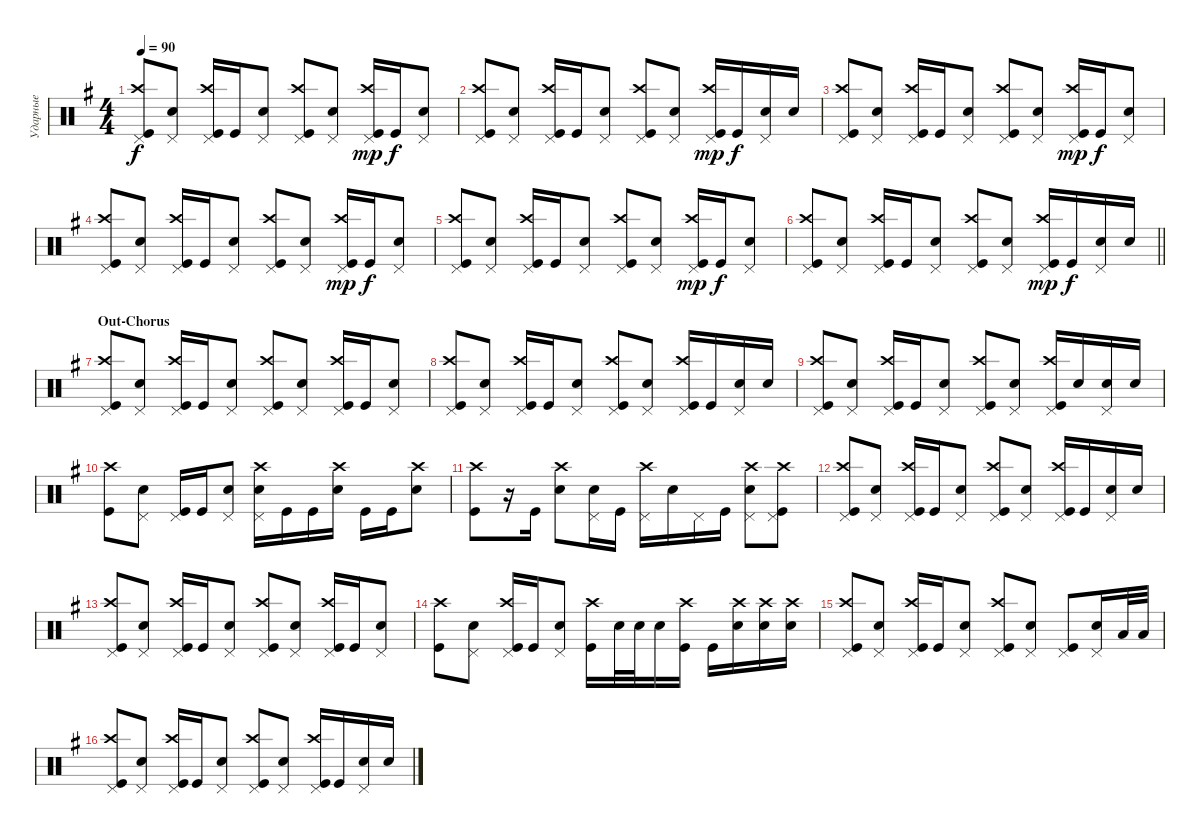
\track ("Ударные" "Ударные") {instrument percussion}
\staff {score}
\articulation defaults
\ts (4 4)
\tempo 90
\clef neutral
\ks eminor
("Kick (hit)" "Crash high (hit)" "Pedal Hi-Hat (hit)").8{dy f} ("Snare (hit) 2" "Pedal Hi-Hat (hit)").8 ("Kick (hit)" "Crash high (hit)" "Pedal Hi-Hat (hit)").16 "Kick (hit)".16 ("Snare (hit) 2" "Pedal Hi-Hat (hit)").8 ("Kick (hit)" "Crash high (hit)" "Pedal Hi-Hat (hit)").8 ("Snare (hit) 2" "Pedal Hi-Hat (hit)").8 ("Kick (hit)" "Crash high (hit)" "Pedal Hi-Hat (hit)").16{dy mp} "Kick (hit)".16{dy f} ("Snare (hit) 2" "Pedal Hi-Hat (hit)").8 |
("Kick (hit)" "Crash high (hit)" "Pedal Hi-Hat (hit)").8 ("Snare (hit) 2" "Pedal Hi-Hat (hit)").8 ("Kick (hit)" "Crash high (hit)" "Pedal Hi-Hat (hit)").16 "Kick (hit)".16 ("Snare (hit) 2" "Pedal Hi-Hat (hit)").8 ("Kick (hit)" "Crash high (hit)" "Pedal Hi-Hat (hit)").8 ("Snare (hit) 2" "Pedal Hi-Hat (hit)").8 ("Kick (hit)" "Crash high (hit)" "Pedal Hi-Hat (hit)").16{dy mp} "Kick (hit)".16{dy f} ("Snare (hit) 2" "Pedal Hi-Hat (hit)").16 "Snare (hit) 2".16 |
("Kick (hit)" "Crash high (hit)" "Pedal Hi-Hat (hit)").8 ("Snare (hit) 2" "Pedal Hi-Hat (hit)").8 ("Kick (hit)" "Crash high (hit)" "Pedal Hi-Hat (hit)").16 "Kick (hit)".16 ("Snare (hit) 2" "Pedal Hi-Hat (hit)").8 ("Kick (hit)" "Crash high (hit)" "Pedal Hi-Hat (hit)").8 ("Snare (hit) 2" "Pedal Hi-Hat (hit)").8 ("Kick (hit)" "Crash high (hit)" "Pedal Hi-Hat (hit)").16{dy mp} "Kick (hit)".16{dy f} ("Snare (hit) 2" "Pedal Hi-Hat (hit)").8 |
("Kick (hit)" "Crash high (hit)" "Pedal Hi-Hat (hit)").8 ("Snare (hit) 2" "Pedal Hi-Hat (hit)").8 ("Kick (hit)" "Crash high (hit)" "Pedal Hi-Hat (hit)").16 "Kick (hit)".16 ("Snare (hit) 2" "Pedal Hi-Hat (hit)").8 ("Kick (hit)" "Crash high (hit)" "Pedal Hi-Hat (hit)").8 ("Snare (hit) 2" "Pedal Hi-Hat (hit)").8 ("Kick (hit)" "Crash high (hit)" "Pedal Hi-Hat (hit)").16{dy mp} "Kick (hit)".16{dy f} ("Snare (hit) 2" "Pedal Hi-Hat (hit)").8 |
("Kick (hit)" "Crash high (hit)" "Pedal Hi-Hat (hit)").8 ("Snare (hit) 2" "Pedal Hi-Hat (hit)").8 ("Kick (hit)" "Crash high (hit)" "Pedal Hi-Hat (hit)").16 "Kick (hit)".16 ("Snare (hit) 2" "Pedal Hi-Hat (hit)").8 ("Kick (hit)" "Crash high (hit)" "Pedal Hi-Hat (hit)").8 ("Snare (hit) 2" "Pedal Hi-Hat (hit)").8 ("Kick (hit)" "Crash high (hit)" "Pedal Hi-Hat (hit)").16{dy mp} "Kick (hit)".16{dy f} ("Snare (hit) 2" "Pedal Hi-Hat (hit)").8 |
\barLineRight lightlight
("Kick (hit)" "Crash high (hit)" "Pedal Hi-Hat (hit)").8 ("Snare (hit) 2" "Pedal Hi-Hat (hit)").8 ("Kick (hit)" "Crash high (hit)" "Pedal Hi-Hat (hit)").16 "Kick (hit)".16 ("Snare (hit) 2" "Pedal Hi-Hat (hit)").8 ("Kick (hit)" "Crash high (hit)" "Pedal Hi-Hat (hit)").8 ("Snare (hit) 2" "Pedal Hi-Hat (hit)").8 ("Kick (hit)" "Crash high (hit)" "Pedal Hi-Hat (hit)").16{dy mp} "Kick (hit)".16{dy f} ("Snare (hit) 2" "Pedal Hi-Hat (hit)").16 "Snare (hit) 2".16 |
\section ("" "Out-Chorus")
("Kick (hit)" "Crash high (hit)" "Pedal Hi-Hat (hit)").8 ("Snare (hit) 2" "Pedal Hi-Hat (hit)").8 ("Kick (hit)" "Crash high (hit)" "Pedal Hi-Hat (hit)").16 "Kick (hit)".16 ("Snare (hit) 2" "Pedal Hi-Hat (hit)").8 ("Kick (hit)" "Crash high (hit)" "Pedal Hi-Hat (hit)").8 ("Snare (hit) 2" "Pedal Hi-Hat (hit)").8 ("Kick (hit)" "Crash high (hit)" "Pedal Hi-Hat (hit)").16 "Kick (hit)".16 ("Snare (hit) 2" "Pedal Hi-Hat (hit)").8 |
("Kick (hit)" "Crash high (hit)" "Pedal Hi-Hat (hit)").8 ("Snare (hit) 2" "Pedal Hi-Hat (hit)").8 ("Kick (hit)" "Crash high (hit)" "Pedal Hi-Hat (hit)").16 "Kick (hit)".16 ("Snare (hit) 2" "Pedal Hi-Hat (hit)").8 ("Kick (hit)" "Crash high (hit)" "Pedal Hi-Hat (hit)").8 ("Snare (hit) 2" "Pedal Hi-Hat (hit)").8 ("Kick (hit)" "Crash high (hit)" "Pedal Hi-Hat (hit)").16 "Kick (hit)".16 ("Snare (hit) 2" "Pedal Hi-Hat (hit)").16 "Snare (hit) 2".16 |
("Kick (hit)" "Crash high (hit)" "Pedal Hi-Hat (hit)").8 ("Snare (hit) 2" "Pedal Hi-Hat (hit)").8 ("Kick (hit)" "Crash high (hit)" "Pedal Hi-Hat (hit)").16 "Kick (hit)".16 ("Snare (hit) 2" "Pedal Hi-Hat (hit)").8 ("Kick (hit)" "Crash high (hit)" "Pedal Hi-Hat (hit)").8 ("Snare (hit) 2" "Pedal Hi-Hat (hit)").8 ("Kick (hit)" "Crash high (hit)" "Pedal Hi-Hat (hit)").16 "Snare (hit) 2".16 ("Snare (hit) 2" "Pedal Hi-Hat (hit)").16 "Snare (hit) 2".16 |
("Kick (hit)" "Crash high (hit)").8 ("Snare (hit) 2" "Pedal Hi-Hat (hit)").8 ("Kick (hit)" "Pedal Hi-Hat (hit)").16 "Kick (hit)".16 ("Snare (hit) 2" "Pedal Hi-Hat (hit)").8 ("Crash high (hit)" "Snare (hit) 2" "Pedal Hi-Hat (hit)").16 "Kick (hit)".16 "Kick (hit)".16 ("Snare (hit) 2" "Crash high (hit)").16 "Kick (hit)".16 "Kick (hit)".16 ("Snare (hit) 2" "Crash high (hit)").8 |
("Kick (hit)" "Crash high (hit)").8 r.16 "Kick (hit)".16 ("Snare (hit) 2" "Crash high (hit)").8 ("Snare (hit) 2" "Pedal Hi-Hat (hit)").16 "Kick (hit)".16 ("Pedal Hi-Hat (hit)" "Crash high (hit)").16 "Snare (hit) 2".16 "Pedal Hi-Hat (hit)".16 "Kick (hit)".16 ("Snare (hit) 2" "Crash high (hit)" "Pedal Hi-Hat (hit)").8 ("Kick (hit)" "Crash high (hit)" "Pedal Hi-Hat (hit)").8 |
("Kick (hit)" "Crash high (hit)" "Pedal Hi-Hat (hit)").8 ("Snare (hit) 2" "Pedal Hi-Hat (hit)").8 ("Kick (hit)" "Crash high (hit)" "Pedal Hi-Hat (hit)").16 "Kick (hit)".16 ("Snare (hit) 2" "Pedal Hi-Hat (hit)").8 ("Kick (hit)" "Crash high (hit)" "Pedal Hi-Hat (hit)").8 ("Snare (hit) 2" "Pedal Hi-Hat (hit)").8 ("Kick (hit)" "Crash high (hit)" "Pedal Hi-Hat (hit)").16 "Kick (hit)".16 ("Snare (hit) 2" "Pedal Hi-Hat (hit)").16 "Snare (hit) 2".16 |
("Kick (hit)" "Crash high (hit)" "Pedal Hi-Hat (hit)").8 ("Snare (hit) 2" "Pedal Hi-Hat (hit)").8 ("Kick (hit)" "Crash high (hit)" "Pedal Hi-Hat (hit)").16 "Kick (hit)".16 ("Snare (hit) 2" "Pedal Hi-Hat (hit)").8 ("Kick (hit)" "Crash high (hit)" "Pedal Hi-Hat (hit)").8 ("Snare (hit) 2" "Pedal Hi-Hat (hit)").8 ("Kick (hit)" "Crash high (hit)" "Pedal Hi-Hat (hit)").16 "Kick (hit)".16 ("Snare (hit) 2" "Pedal Hi-Hat (hit)").8 |
("Kick (hit)" "Crash high (hit)").8 ("Snare (hit) 2" "Pedal Hi-Hat (hit)").8 ("Kick (hit)" "Pedal Hi-Hat (hit)" "Crash high (hit)").16 "Kick (hit)".16 ("Snare (hit) 2" "Pedal Hi-Hat (hit)").8 ("Crash high (hit)" "Kick (hit)").16 "Snare (hit) 2".32 "Snare (hit) 2".32 "Snare (hit) 2".16 ("Kick (hit)" "Crash high (hit)").16 "Kick (hit)".16 ("Snare (hit) 2" "Crash high (hit)").16 ("Snare (hit) 2" "Crash high (hit)").16 ("Snare (hit) 2" "Crash high (hit)").16 |
("Pedal Hi-Hat (hit)" "Kick (hit)" "Crash high (hit)").8 ("Snare (hit) 2" "Pedal Hi-Hat (hit)").8 ("Kick (hit)" "Pedal Hi-Hat (hit)" "Crash high (hit)").16 "Kick (hit)".16 ("Snare (hit) 2" "Pedal Hi-Hat (hit)").8 ("Kick (hit)" "Pedal Hi-Hat (hit)" "Crash high (hit)").8 ("Snare (hit) 2" "Pedal Hi-Hat (hit)").8 ("Kick (hit)" "Pedal Hi-Hat (hit)").8 ("Pedal Hi-Hat (hit)" "Snare (hit) 2").16 "Low Tom (hit)".32 "Low Tom (hit)".32 |
("Kick (hit)" "Crash high (hit)" "Pedal Hi-Hat (hit)").8 ("Snare (hit) 2" "Pedal Hi-Hat (hit)").8 ("Kick (hit)" "Crash high (hit)" "Pedal Hi-Hat (hit)").16 "Kick (hit)".16 ("Snare (hit) 2" "Pedal Hi-Hat (hit)").8 ("Kick (hit)" "Crash high (hit)" "Pedal Hi-Hat (hit)").8 ("Snare (hit) 2" "Pedal Hi-Hat (hit)").8 ("Kick (hit)" "Crash high (hit)" "Pedal Hi-Hat (hit)").16 "Kick (hit)".16 ("Snare (hit) 2" "Pedal Hi-Hat (hit)").16 "Snare (hit) 2".16
